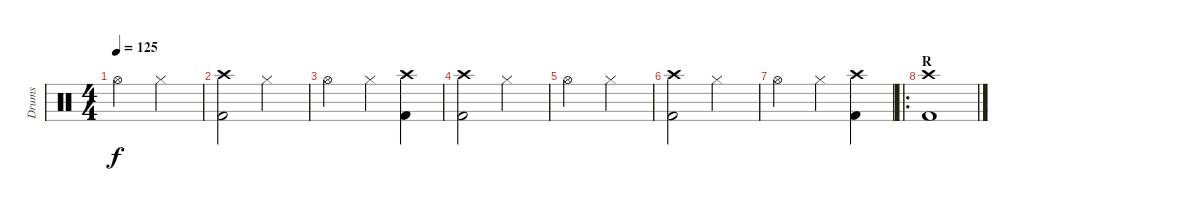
\track ("Drums" "Drums") {instrument percussion}
\staff {score}
\articulation defaults
\ts (4 4)
\tempo 125
\clef neutral
\ks c "Hi-Hat (open)".2{dy f} "Hi-Hat (closed)".2
|
("Kick (hit) 2" "Crash high (hit)").2 "Hi-Hat (closed)".2 |
"Hi-Hat (open)".2 "Hi-Hat (closed)".4 ("Crash high (hit)" "Kick (hit) 2").4 |
("Kick (hit) 2" "Crash high (hit)").2 "Hi-Hat (closed)".2 |
"Hi-Hat (open)".2 "Hi-Hat (closed)".2 |
("Kick (hit) 2" "Crash high (hit)").2 "Hi-Hat (closed)".2 |
"Hi-Hat (open)".2 "Hi-Hat (closed)".4 ("Crash high (hit)" "Kick (hit) 2").4 |
\ro
\section ("" "R")
("Kick (hit) 2" "Crash high (hit)").1
